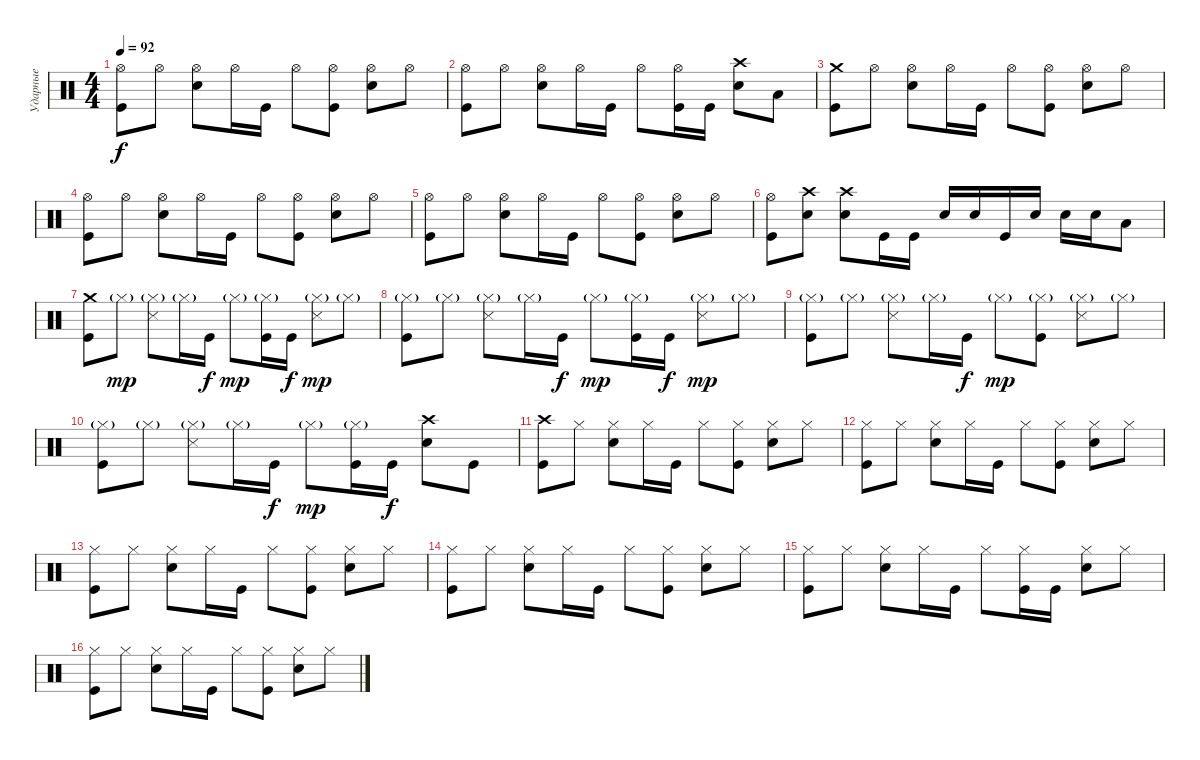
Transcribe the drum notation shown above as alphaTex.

\track ("Ударные" "Ударные") {instrument percussion}
\staff {score}
\articulation defaults
\ts (4 4)
\tempo 92
\clef neutral
\ks c
("Kick (hit)" "Hi-Hat (open)").8{dy f} "Hi-Hat (open)".8 ("Hi-Hat (open)" "Snare (hit) 2").8 "Hi-Hat (open)".16 "Kick (hit)".16 "Hi-Hat (open)".8 ("Kick (hit)" "Hi-Hat (open)").8 ("Hi-Hat (open)" "Snare (hit) 2").8 "Hi-Hat (open)".8 |
("Kick (hit)" "Hi-Hat (open)").8 "Hi-Hat (open)".8 ("Hi-Hat (open)" "Snare (hit) 2").8 "Hi-Hat (open)".16 "Kick (hit)".16 "Hi-Hat (open)".8 ("Kick (hit)" "Hi-Hat (open)").16 "Kick (hit)".16 ("Crash high (hit)" "Snare (hit) 2").8 "Low Tom (hit)".8 |
("Kick (hit)" "Crash medium (hit)").8 "Hi-Hat (open)".8 ("Hi-Hat (open)" "Snare (hit) 2").8 "Hi-Hat (open)".16 "Kick (hit)".16 "Hi-Hat (open)".8 ("Kick (hit)" "Hi-Hat (open)").8 ("Hi-Hat (open)" "Snare (hit) 2").8 "Hi-Hat (open)".8 |
("Kick (hit)" "Hi-Hat (open)").8 "Hi-Hat (open)".8 ("Hi-Hat (open)" "Snare (hit) 2").8 "Hi-Hat (open)".16 "Kick (hit)".16 "Hi-Hat (open)".8 ("Kick (hit)" "Hi-Hat (open)").8 ("Hi-Hat (open)" "Snare (hit) 2").8 "Hi-Hat (open)".8 |
("Kick (hit)" "Hi-Hat (open)").8 "Hi-Hat (open)".8 ("Hi-Hat (open)" "Snare (hit) 2").8 "Hi-Hat (open)".16 "Kick (hit)".16 "Hi-Hat (open)".8 ("Kick (hit)" "Hi-Hat (open)").8 ("Hi-Hat (open)" "Snare (hit) 2").8 "Hi-Hat (open)".8 |
("Kick (hit)" "Hi-Hat (open)").8 ("Crash high (hit)" "Snare (hit) 2").8 ("Crash high (hit)" "Snare (hit) 2").8 "Kick (hit)".16 "Kick (hit)".16 "Snare (hit) 2".16 "Snare (hit) 2".16 "Kick (hit)".16 "Snare (hit) 2".16 "Snare (hit) 2".16 "Snare (hit) 2".16 "Low Tom (hit)".8 |
("Kick (hit)" "Crash medium (hit)").8 "Hi-Hat (closed)"{g}.8{dy mp} ("Hi-Hat (closed)"{g} "Snare (side stick) 3").8 "Hi-Hat (closed)"{g}.16 "Kick (hit)".16{dy f} "Hi-Hat (closed)"{g}.8{dy mp} ("Hi-Hat (closed)"{g} "Kick (hit)").16 "Kick (hit)".16{dy f} ("Hi-Hat (closed)"{g} "Snare (side stick) 3").8{dy mp} "Hi-Hat (closed)"{g}.8 |
("Hi-Hat (closed)"{g} "Kick (hit)").8 "Hi-Hat (closed)"{g}.8 ("Hi-Hat (closed)"{g} "Snare (side stick) 3").8 "Hi-Hat (closed)"{g}.16 "Kick (hit)".16{dy f} "Hi-Hat (closed)"{g}.8{dy mp} ("Hi-Hat (closed)"{g} "Kick (hit)").16 "Kick (hit)".16{dy f} ("Hi-Hat (closed)"{g} "Snare (side stick) 3").8{dy mp} "Hi-Hat (closed)"{g}.8 |
("Hi-Hat (closed)"{g} "Kick (hit)").8 "Hi-Hat (closed)"{g}.8 ("Hi-Hat (closed)"{g} "Snare (side stick) 3").8 "Hi-Hat (closed)"{g}.16 "Kick (hit)".16{dy f} "Hi-Hat (closed)"{g}.8{dy mp} ("Hi-Hat (closed)"{g} "Kick (hit)").8 ("Hi-Hat (closed)"{g} "Snare (side stick) 3").8 "Hi-Hat (closed)"{g}.8 |
("Hi-Hat (closed)"{g} "Kick (hit)").8 "Hi-Hat (closed)"{g}.8 ("Hi-Hat (closed)"{g} "Snare (side stick) 3").8 "Hi-Hat (closed)"{g}.16 "Kick (hit)".16{dy f} "Hi-Hat (closed)"{g}.8{dy mp} ("Hi-Hat (closed)"{g} "Kick (hit)").16 "Kick (hit)".16{dy f} ("Snare (hit) 2" "Crash high (hit)").8 "Kick (hit)".8 |
("Kick (hit)" "Crash high (hit)").8 "Hi-Hat (closed)".8 ("Hi-Hat (closed)" "Snare (hit) 2").8 "Hi-Hat (closed)".16 "Kick (hit)".16 "Hi-Hat (closed)".8 ("Kick (hit)" "Hi-Hat (closed)").8 ("Hi-Hat (closed)" "Snare (hit) 2").8 "Hi-Hat (closed)".8 |
("Kick (hit)" "Hi-Hat (closed)").8 "Hi-Hat (closed)".8 ("Hi-Hat (closed)" "Snare (hit) 2").8 "Hi-Hat (closed)".16 "Kick (hit)".16 "Hi-Hat (closed)".8 ("Kick (hit)" "Hi-Hat (closed)").8 ("Hi-Hat (closed)" "Snare (hit) 2").8 "Hi-Hat (closed)".8 |
("Kick (hit)" "Hi-Hat (closed)").8 "Hi-Hat (closed)".8 ("Hi-Hat (closed)" "Snare (hit) 2").8 "Hi-Hat (closed)".16 "Kick (hit)".16 "Hi-Hat (closed)".8 ("Kick (hit)" "Hi-Hat (closed)").8 ("Hi-Hat (closed)" "Snare (hit) 2").8 "Hi-Hat (closed)".8 |
("Kick (hit)" "Hi-Hat (closed)").8 "Hi-Hat (closed)".8 ("Hi-Hat (closed)" "Snare (hit) 2").8 "Hi-Hat (closed)".16 "Kick (hit)".16 "Hi-Hat (closed)".8 ("Kick (hit)" "Hi-Hat (closed)").8 ("Hi-Hat (closed)" "Snare (hit) 2").8 "Hi-Hat (closed)".8 |
("Kick (hit)" "Hi-Hat (closed)").8 "Hi-Hat (closed)".8 ("Hi-Hat (closed)" "Snare (hit) 2").8 "Hi-Hat (closed)".16 "Kick (hit)".16 "Hi-Hat (closed)".8 ("Kick (hit)" "Hi-Hat (closed)").16 "Kick (hit)".16 ("Hi-Hat (closed)" "Snare (hit) 2").8 "Hi-Hat (closed)".8 |
("Kick (hit)" "Hi-Hat (closed)").8 "Hi-Hat (closed)".8 ("Hi-Hat (closed)" "Snare (hit) 2").8 "Hi-Hat (closed)".16 "Kick (hit)".16 "Hi-Hat (closed)".8 ("Kick (hit)" "Hi-Hat (closed)").8 ("Hi-Hat (closed)" "Snare (hit) 2").8 "Hi-Hat (closed)".8
